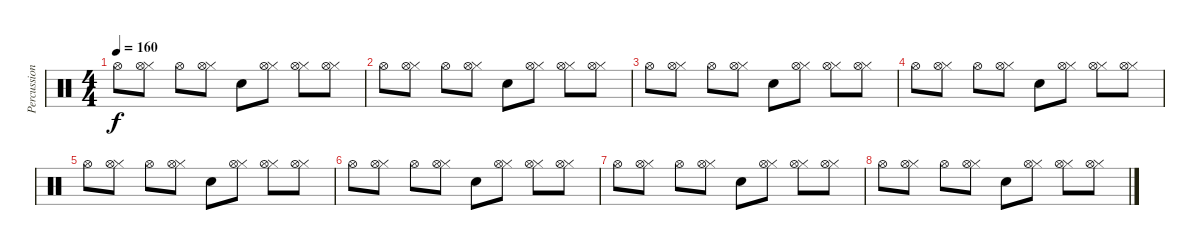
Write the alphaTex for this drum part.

\track ("Percussions" "Percussion") {instrument percussion}
\staff {score}
\articulation defaults
\ts (4 4)
\tempo 160
\clef neutral
\ks c "Hi-Hat (open)".8{dy f}
("Hi-Hat (closed)" "Hi-Hat (open)").8 "Hi-Hat (open)".8 ("Hi-Hat (closed)" "Hi-Hat (open)").8 "Snare (hit) 2".8 ("Hi-Hat (closed)" "Hi-Hat (open)").8 ("Hi-Hat (closed)" "Hi-Hat (open)").8 ("Hi-Hat (closed)" "Hi-Hat (open)").8 |
"Hi-Hat (open)".8 ("Hi-Hat (closed)" "Hi-Hat (open)").8 "Hi-Hat (open)".8 ("Hi-Hat (closed)" "Hi-Hat (open)").8 "Snare (hit) 2".8 ("Hi-Hat (closed)" "Hi-Hat (open)").8 ("Hi-Hat (closed)" "Hi-Hat (open)").8 ("Hi-Hat (closed)" "Hi-Hat (open)").8 |
"Hi-Hat (open)".8 ("Hi-Hat (closed)" "Hi-Hat (open)").8 "Hi-Hat (open)".8 ("Hi-Hat (closed)" "Hi-Hat (open)").8 "Snare (hit) 2".8 ("Hi-Hat (closed)" "Hi-Hat (open)").8 ("Hi-Hat (closed)" "Hi-Hat (open)").8 ("Hi-Hat (closed)" "Hi-Hat (open)").8 |
"Hi-Hat (open)".8 ("Hi-Hat (closed)" "Hi-Hat (open)").8 "Hi-Hat (open)".8 ("Hi-Hat (closed)" "Hi-Hat (open)").8 "Snare (hit) 2".8 ("Hi-Hat (closed)" "Hi-Hat (open)").8 ("Hi-Hat (closed)" "Hi-Hat (open)").8 ("Hi-Hat (closed)" "Hi-Hat (open)").8 |
"Hi-Hat (open)".8 ("Hi-Hat (closed)" "Hi-Hat (open)").8 "Hi-Hat (open)".8 ("Hi-Hat (closed)" "Hi-Hat (open)").8 "Snare (hit) 2".8 ("Hi-Hat (closed)" "Hi-Hat (open)").8 ("Hi-Hat (closed)" "Hi-Hat (open)").8 ("Hi-Hat (closed)" "Hi-Hat (open)").8 |
"Hi-Hat (open)".8 ("Hi-Hat (closed)" "Hi-Hat (open)").8 "Hi-Hat (open)".8 ("Hi-Hat (closed)" "Hi-Hat (open)").8 "Snare (hit) 2".8 ("Hi-Hat (closed)" "Hi-Hat (open)").8 ("Hi-Hat (closed)" "Hi-Hat (open)").8 ("Hi-Hat (closed)" "Hi-Hat (open)").8 |
"Hi-Hat (open)".8 ("Hi-Hat (closed)" "Hi-Hat (open)").8 "Hi-Hat (open)".8 ("Hi-Hat (closed)" "Hi-Hat (open)").8 "Snare (hit) 2".8 ("Hi-Hat (closed)" "Hi-Hat (open)").8 ("Hi-Hat (closed)" "Hi-Hat (open)").8 ("Hi-Hat (closed)" "Hi-Hat (open)").8 |
"Hi-Hat (open)".8 ("Hi-Hat (closed)" "Hi-Hat (open)").8 "Hi-Hat (open)".8 ("Hi-Hat (closed)" "Hi-Hat (open)").8 "Snare (hit) 2".8 ("Hi-Hat (closed)" "Hi-Hat (open)").8 ("Hi-Hat (closed)" "Hi-Hat (open)").8 ("Hi-Hat (closed)" "Hi-Hat (open)").8
